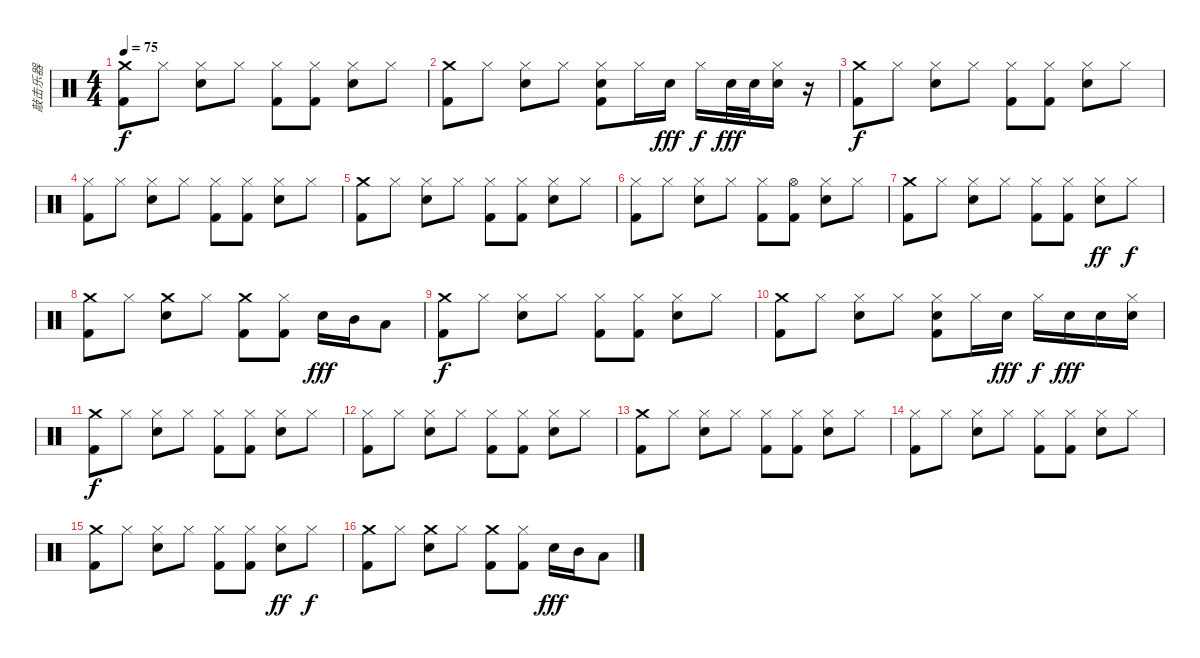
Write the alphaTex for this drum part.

\track ("敲击乐器" "敲击乐器") {instrument percussion}
\staff {score}
\articulation defaults
\ts (4 4)
\tempo 75
\clef neutral
\ks c
("Crash medium (hit)" "Kick (hit) 2").8{dy f} "Hi-Hat (closed)".8 ("Hi-Hat (closed)" "Electric Snare (hit)").8 "Hi-Hat (closed)".8 ("Hi-Hat (closed)" "Kick (hit) 2").8 ("Hi-Hat (closed)" "Kick (hit) 2").8 ("Hi-Hat (closed)" "Electric Snare (hit)").8 "Hi-Hat (closed)".8 |
("Crash medium (hit)" "Kick (hit) 2").8 "Hi-Hat (closed)".8 ("Hi-Hat (closed)" "Electric Snare (hit)").8 "Hi-Hat (closed)".8 ("Hi-Hat (closed)" "Electric Snare (hit)" "Kick (hit) 2").8 "Hi-Hat (closed)".16 "Electric Snare (hit)".16{dy fff} "Hi-Hat (closed)".16{dy f} "Electric Snare (hit)".32{dy fff} "Electric Snare (hit)".32 ("Hi-Hat (closed)" "Electric Snare (hit)").16 r.16 |
("Crash medium (hit)" "Kick (hit) 2").8{dy f} "Hi-Hat (closed)".8 ("Hi-Hat (closed)" "Electric Snare (hit)").8 "Hi-Hat (closed)".8 ("Hi-Hat (closed)" "Kick (hit) 2").8 ("Hi-Hat (closed)" "Kick (hit) 2").8 ("Hi-Hat (closed)" "Electric Snare (hit)").8 "Hi-Hat (closed)".8 |
("Hi-Hat (closed)" "Kick (hit) 2").8 "Hi-Hat (closed)".8 ("Hi-Hat (closed)" "Electric Snare (hit)").8 "Hi-Hat (closed)".8 ("Hi-Hat (closed)" "Kick (hit) 2").8 ("Hi-Hat (closed)" "Kick (hit) 2").8 ("Hi-Hat (closed)" "Electric Snare (hit)").8 "Hi-Hat (closed)".8 |
("Crash medium (hit)" "Kick (hit) 2").8 "Hi-Hat (closed)".8 ("Hi-Hat (closed)" "Electric Snare (hit)").8 "Hi-Hat (closed)".8 ("Hi-Hat (closed)" "Kick (hit) 2").8 ("Hi-Hat (closed)" "Kick (hit) 2").8 ("Hi-Hat (closed)" "Electric Snare (hit)").8 "Hi-Hat (closed)".8 |
("Hi-Hat (closed)" "Kick (hit) 2").8 "Hi-Hat (closed)".8 ("Hi-Hat (closed)" "Electric Snare (hit)").8 "Hi-Hat (closed)".8 ("Hi-Hat (closed)" "Kick (hit) 2").8 ("Hi-Hat (open)" "Kick (hit) 2").8 ("Hi-Hat (closed)" "Electric Snare (hit)").8 "Hi-Hat (closed)".8 |
("Crash medium (hit)" "Kick (hit) 2").8 "Hi-Hat (closed)".8 ("Hi-Hat (closed)" "Electric Snare (hit)").8 "Hi-Hat (closed)".8 ("Hi-Hat (closed)" "Kick (hit) 2").8 ("Hi-Hat (closed)" "Kick (hit) 2").8 ("Hi-Hat (closed)" "Electric Snare (hit)").8{dy ff} "Hi-Hat (closed)".8{dy f} |
("Crash medium (hit)" "Kick (hit) 2").8 "Hi-Hat (closed)".8 ("Crash medium (hit)" "Electric Snare (hit)").8 "Hi-Hat (closed)".8 ("Crash medium (hit)" "Kick (hit) 2").8 ("Hi-Hat (closed)" "Kick (hit) 2").8 "Electric Snare (hit)".16{dy fff} "Mid Tom (hit)".16 "Low Tom (hit)".8 |
("Crash medium (hit)" "Kick (hit) 2").8{dy f} "Hi-Hat (closed)".8 ("Hi-Hat (closed)" "Electric Snare (hit)").8 "Hi-Hat (closed)".8 ("Hi-Hat (closed)" "Kick (hit) 2").8 ("Hi-Hat (closed)" "Kick (hit) 2").8 ("Hi-Hat (closed)" "Electric Snare (hit)").8 "Hi-Hat (closed)".8 |
("Crash medium (hit)" "Kick (hit) 2").8 "Hi-Hat (closed)".8 ("Hi-Hat (closed)" "Electric Snare (hit)").8 "Hi-Hat (closed)".8 ("Hi-Hat (closed)" "Electric Snare (hit)" "Kick (hit) 2").8 "Hi-Hat (closed)".16 "Electric Snare (hit)".16{dy fff} "Hi-Hat (closed)".16{dy f} "Electric Snare (hit)".16{dy fff} "Electric Snare (hit)".16 ("Hi-Hat (closed)" "Electric Snare (hit)").16 |
("Crash medium (hit)" "Kick (hit) 2").8{dy f} "Hi-Hat (closed)".8 ("Hi-Hat (closed)" "Electric Snare (hit)").8 "Hi-Hat (closed)".8 ("Hi-Hat (closed)" "Kick (hit) 2").8 ("Hi-Hat (closed)" "Kick (hit) 2").8 ("Hi-Hat (closed)" "Electric Snare (hit)").8 "Hi-Hat (closed)".8 |
("Hi-Hat (closed)" "Kick (hit) 2").8 "Hi-Hat (closed)".8 ("Hi-Hat (closed)" "Electric Snare (hit)").8 "Hi-Hat (closed)".8 ("Hi-Hat (closed)" "Kick (hit) 2").8 ("Hi-Hat (closed)" "Kick (hit) 2").8 ("Hi-Hat (closed)" "Electric Snare (hit)").8 "Hi-Hat (closed)".8 |
("Crash medium (hit)" "Kick (hit) 2").8{volume 15} "Hi-Hat (closed)".8 ("Hi-Hat (closed)" "Electric Snare (hit)").8{volume 14} "Hi-Hat (closed)".8 ("Hi-Hat (closed)" "Kick (hit) 2").8{volume 13} ("Hi-Hat (closed)" "Kick (hit) 2").8 ("Hi-Hat (closed)" "Electric Snare (hit)").8{volume 12} "Hi-Hat (closed)".8 |
("Hi-Hat (closed)" "Kick (hit) 2").8{volume 11} "Hi-Hat (closed)".8 ("Hi-Hat (closed)" "Electric Snare (hit)").8{volume 10} "Hi-Hat (closed)".8 ("Hi-Hat (closed)" "Kick (hit) 2").8{volume 9} ("Hi-Hat (closed)" "Kick (hit) 2").8 ("Hi-Hat (closed)" "Electric Snare (hit)").8{volume 8} "Hi-Hat (closed)".8 |
("Crash medium (hit)" "Kick (hit) 2").8{volume 7} "Hi-Hat (closed)".8 ("Hi-Hat (closed)" "Electric Snare (hit)").8{volume 6} "Hi-Hat (closed)".8 ("Hi-Hat (closed)" "Kick (hit) 2").8{volume 5} ("Hi-Hat (closed)" "Kick (hit) 2").8 ("Hi-Hat (closed)" "Electric Snare (hit)").8{dy ff volume 4} "Hi-Hat (closed)".8{dy f} |
("Crash medium (hit)" "Kick (hit) 2").8{volume 3} "Hi-Hat (closed)".8 ("Crash medium (hit)" "Electric Snare (hit)").8{volume 2} "Hi-Hat (closed)".8 ("Crash medium (hit)" "Kick (hit) 2").8{volume 1} ("Hi-Hat (closed)" "Kick (hit) 2").8 "Electric Snare (hit)".16{dy fff volume 0} "Mid Tom (hit)".16 "Low Tom (hit)".8
